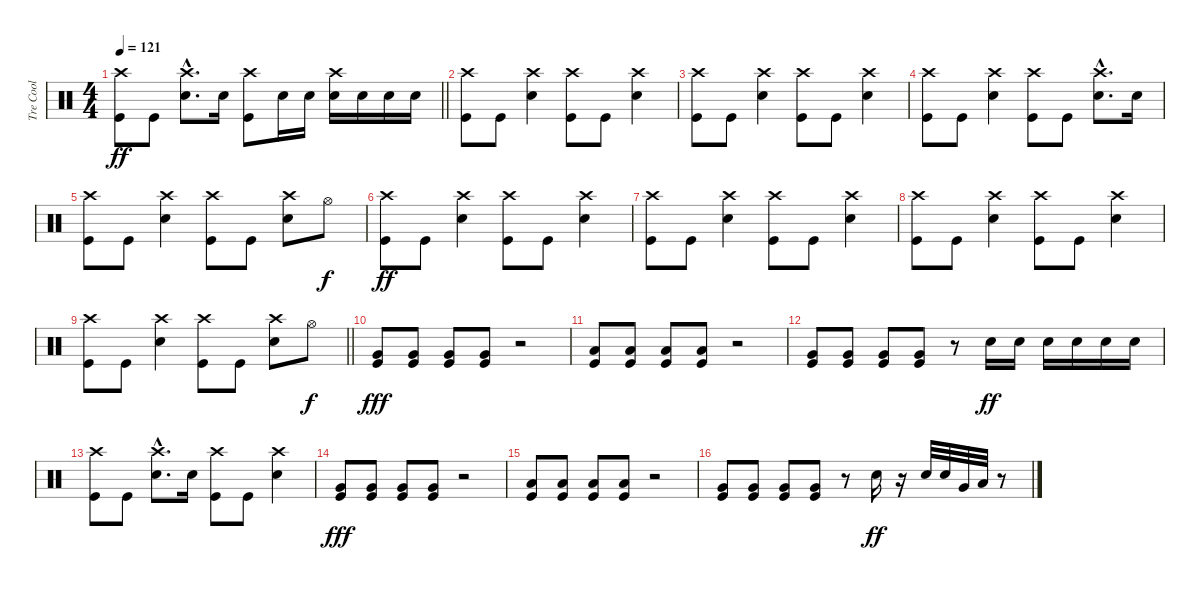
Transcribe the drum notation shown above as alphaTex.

\track ("Tre Cool" "Tre Cool") {instrument percussion}
\staff {score}
\articulation defaults
\ts (4 4)
\tempo 121
\clef neutral
\barLineRight lightlight
\ks c
("Crash high (hit)" "Kick (hit)").8{dy ff} "Kick (hit)".8 ("Crash high (hit)"{hac} "Snare (hit) 2"{hac}).8{d} "Snare (hit) 2".16 ("Crash high (hit)" "Kick (hit)").8 "Snare (hit) 2".16 "Snare (hit) 2".16 ("Crash high (hit)" "Snare (hit) 2").16 "Snare (hit) 2".16 "Snare (hit) 2".16 "Snare (hit) 2".16 |
("Crash high (hit)" "Kick (hit)").8 "Kick (hit)".8 ("Crash high (hit)" "Snare (hit) 2").4 ("Crash high (hit)" "Kick (hit)").8 "Kick (hit)".8 ("Crash high (hit)" "Snare (hit) 2").4 |
("Crash high (hit)" "Kick (hit)").8 "Kick (hit)".8 ("Crash high (hit)" "Snare (hit) 2").4 ("Crash high (hit)" "Kick (hit)").8 "Kick (hit)".8 ("Crash high (hit)" "Snare (hit) 2").4 |
("Crash high (hit)" "Kick (hit)").8 "Kick (hit)".8 ("Crash high (hit)" "Snare (hit) 2").4 ("Crash high (hit)" "Kick (hit)").8 "Kick (hit)".8 ("Crash high (hit)"{hac} "Snare (hit) 2"{hac}).8{d} "Snare (hit) 2".16 |
("Crash high (hit)" "Kick (hit)").8 "Kick (hit)".8 ("Crash high (hit)" "Snare (hit) 2").4 ("Crash high (hit)" "Kick (hit)").8 "Kick (hit)".8 ("Crash high (hit)" "Snare (hit) 2").8 "Hi-Hat (open)".8{dy f} |
("Crash high (hit)" "Kick (hit)").8{dy ff} "Kick (hit)".8 ("Crash high (hit)" "Snare (hit) 2").4 ("Crash high (hit)" "Kick (hit)").8 "Kick (hit)".8 ("Crash high (hit)" "Snare (hit) 2").4 |
("Crash high (hit)" "Kick (hit)").8 "Kick (hit)".8 ("Crash high (hit)" "Snare (hit) 2").4 ("Crash high (hit)" "Kick (hit)").8 "Kick (hit)".8 ("Crash high (hit)" "Snare (hit) 2").4 |
("Crash high (hit)" "Kick (hit)").8 "Kick (hit)".8 ("Crash high (hit)" "Snare (hit) 2").4 ("Crash high (hit)" "Kick (hit)").8 "Kick (hit)".8 ("Crash high (hit)" "Snare (hit) 2").4 |
\barLineRight lightlight
("Crash high (hit)" "Kick (hit)").8 "Kick (hit)".8 ("Crash high (hit)" "Snare (hit) 2").4 ("Crash high (hit)" "Kick (hit)").8 "Kick (hit)".8 ("Crash high (hit)" "Snare (hit) 2").8 "Hi-Hat (open)".8{dy f} |
("Very Low Tom (hit)" "Kick (hit)").8{dy fff} ("Very Low Tom (hit)" "Kick (hit)").8 ("Very Low Tom (hit)" "Kick (hit)").8 ("Very Low Tom (hit)" "Kick (hit)").8 r.2 |
("Low Floor Tom (hit)" "Kick (hit)").8 ("Low Floor Tom (hit)" "Kick (hit)").8 ("Low Floor Tom (hit)" "Kick (hit)").8 ("Low Floor Tom (hit)" "Kick (hit)").8 r.2 |
("Very Low Tom (hit)" "Kick (hit)").8 ("Very Low Tom (hit)" "Kick (hit)").8 ("Very Low Tom (hit)" "Kick (hit)").8 ("Very Low Tom (hit)" "Kick (hit)").8 r.8 "Snare (hit) 2".16{dy ff} "Snare (hit) 2".16 "Snare (hit) 2".16 "Snare (hit) 2".16 "Snare (hit) 2".16 "Snare (hit) 2".16 |
("Crash high (hit)" "Kick (hit)").8 "Kick (hit)".8 ("Crash high (hit)"{hac} "Snare (hit) 2"{hac}).8{d} "Snare (hit) 2".16 ("Crash high (hit)" "Kick (hit)").8 "Kick (hit)".8 ("Crash high (hit)" "Snare (hit) 2").4 |
("Very Low Tom (hit)" "Kick (hit)").8{dy fff} ("Very Low Tom (hit)" "Kick (hit)").8 ("Very Low Tom (hit)" "Kick (hit)").8 ("Very Low Tom (hit)" "Kick (hit)").8 r.2 |
("Low Floor Tom (hit)" "Kick (hit)").8 ("Low Floor Tom (hit)" "Kick (hit)").8 ("Low Floor Tom (hit)" "Kick (hit)").8 ("Low Floor Tom (hit)" "Kick (hit)").8 r.2 |
("Very Low Tom (hit)" "Kick (hit)").8 ("Very Low Tom (hit)" "Kick (hit)").8 ("Very Low Tom (hit)" "Kick (hit)").8 ("Very Low Tom (hit)" "Kick (hit)").8 r.8 "Snare (hit) 2".16{dy ff} r.16 "Snare (hit) 2".32 "Snare (hit) 2".32 "Very Low Tom (hit)".32 "Low Floor Tom (hit)".32 r.8
